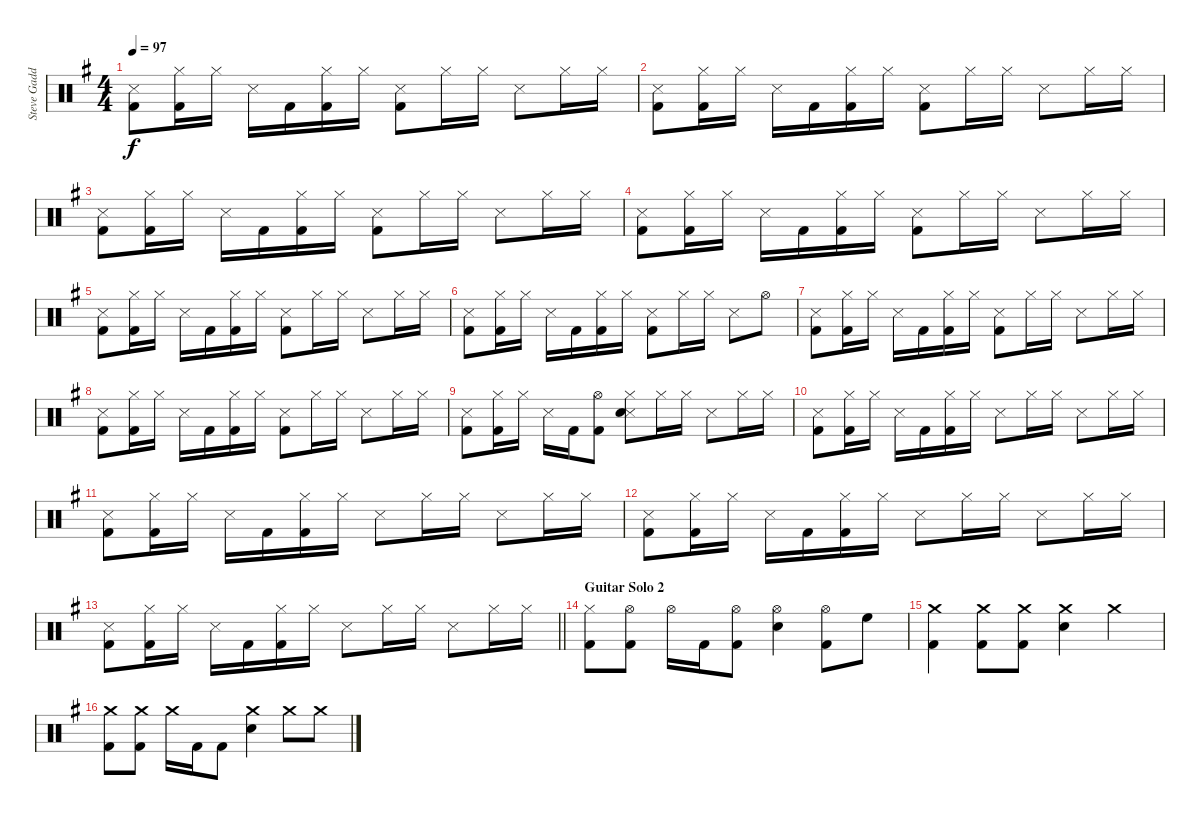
\track ("Steve Gadd" "Steve Gadd") {instrument percussion}
\staff {score}
\articulation defaults
\ts (4 4)
\tempo 97
\clef neutral
\ks g
("Snare (side stick) 3" "Kick (hit) 2").8{dy f} ("Hi-Hat (closed)" "Kick (hit) 2").16 "Hi-Hat (closed)".16 "Snare (side stick) 3".16 "Kick (hit) 2".16 ("Hi-Hat (closed)" "Kick (hit) 2").16 "Hi-Hat (closed)".16 ("Snare (side stick) 3" "Kick (hit) 2").8 "Hi-Hat (closed)".16 "Hi-Hat (closed)".16 "Snare (side stick) 3".8 "Hi-Hat (closed)".16 "Hi-Hat (closed)".16 |
("Snare (side stick) 3" "Kick (hit) 2").8 ("Hi-Hat (closed)" "Kick (hit) 2").16 "Hi-Hat (closed)".16 "Snare (side stick) 3".16 "Kick (hit) 2".16 ("Hi-Hat (closed)" "Kick (hit) 2").16 "Hi-Hat (closed)".16 ("Snare (side stick) 3" "Kick (hit) 2").8 "Hi-Hat (closed)".16 "Hi-Hat (closed)".16 "Snare (side stick) 3".8 "Hi-Hat (closed)".16 "Hi-Hat (closed)".16 |
("Snare (side stick) 3" "Kick (hit) 2").8 ("Hi-Hat (closed)" "Kick (hit) 2").16 "Hi-Hat (closed)".16 "Snare (side stick) 3".16 "Kick (hit) 2".16 ("Hi-Hat (closed)" "Kick (hit) 2").16 "Hi-Hat (closed)".16 ("Snare (side stick) 3" "Kick (hit) 2").8 "Hi-Hat (closed)".16 "Hi-Hat (closed)".16 "Snare (side stick) 3".8 "Hi-Hat (closed)".16 "Hi-Hat (closed)".16 |
("Snare (side stick) 3" "Kick (hit) 2").8 ("Hi-Hat (closed)" "Kick (hit) 2").16 "Hi-Hat (closed)".16 "Snare (side stick) 3".16 "Kick (hit) 2".16 ("Hi-Hat (closed)" "Kick (hit) 2").16 "Hi-Hat (closed)".16 ("Snare (side stick) 3" "Kick (hit) 2").8 "Hi-Hat (closed)".16 "Hi-Hat (closed)".16 "Snare (side stick) 3".8 "Hi-Hat (closed)".16 "Hi-Hat (closed)".16 |
("Snare (side stick) 3" "Kick (hit) 2").8 ("Hi-Hat (closed)" "Kick (hit) 2").16 "Hi-Hat (closed)".16 "Snare (side stick) 3".16 "Kick (hit) 2".16 ("Hi-Hat (closed)" "Kick (hit) 2").16 "Hi-Hat (closed)".16 ("Snare (side stick) 3" "Kick (hit) 2").8 "Hi-Hat (closed)".16 "Hi-Hat (closed)".16 "Snare (side stick) 3".8 "Hi-Hat (closed)".16 "Hi-Hat (closed)".16 |
("Snare (side stick) 3" "Kick (hit) 2").8 ("Hi-Hat (closed)" "Kick (hit) 2").16 "Hi-Hat (closed)".16 "Snare (side stick) 3".16 "Kick (hit) 2".16 ("Hi-Hat (closed)" "Kick (hit) 2").16 "Hi-Hat (closed)".16 ("Snare (side stick) 3" "Kick (hit) 2").8 "Hi-Hat (closed)".16 "Hi-Hat (closed)".16 "Snare (side stick) 3".8 "Hi-Hat (open)".8 |
("Snare (side stick) 3" "Kick (hit) 2").8 ("Hi-Hat (closed)" "Kick (hit) 2").16 "Hi-Hat (closed)".16 "Snare (side stick) 3".16 "Kick (hit) 2".16 ("Hi-Hat (closed)" "Kick (hit) 2").16 "Hi-Hat (closed)".16 ("Snare (side stick) 3" "Kick (hit) 2").8 "Hi-Hat (closed)".16 "Hi-Hat (closed)".16 "Snare (side stick) 3".8 "Hi-Hat (closed)".16 "Hi-Hat (closed)".16 |
("Snare (side stick) 3" "Kick (hit) 2").8 ("Hi-Hat (closed)" "Kick (hit) 2").16 "Hi-Hat (closed)".16 "Snare (side stick) 3".16 "Kick (hit) 2".16 ("Hi-Hat (closed)" "Kick (hit) 2").16 "Hi-Hat (closed)".16 ("Snare (side stick) 3" "Kick (hit) 2").8 "Hi-Hat (closed)".16 "Hi-Hat (closed)".16 "Snare (side stick) 3".8 "Hi-Hat (closed)".16 "Hi-Hat (closed)".16 |
("Snare (side stick) 3" "Kick (hit) 2").8 ("Hi-Hat (closed)" "Kick (hit) 2").16 "Hi-Hat (closed)".16 "Snare (side stick) 3".16 "Kick (hit) 2".16 ("Hi-Hat (open)" "Kick (hit) 2").8 ("Snare (side stick) 3" "Hi-Hat (closed)" "Snare (hit) 2").8 "Hi-Hat (closed)".16 "Hi-Hat (closed)".16 "Snare (side stick) 3".8 "Hi-Hat (closed)".16 "Hi-Hat (closed)".16 |
("Snare (side stick) 3" "Kick (hit) 2").8 ("Hi-Hat (closed)" "Kick (hit) 2").16 "Hi-Hat (closed)".16 "Snare (side stick) 3".16 "Kick (hit) 2".16 ("Hi-Hat (closed)" "Kick (hit) 2").16 "Hi-Hat (closed)".16 "Snare (side stick) 3".8 "Hi-Hat (closed)".16 "Hi-Hat (closed)".16 "Snare (side stick) 3".8 "Hi-Hat (closed)".16 "Hi-Hat (closed)".16 |
("Snare (side stick) 3" "Kick (hit) 2").8 ("Hi-Hat (closed)" "Kick (hit) 2").16 "Hi-Hat (closed)".16 "Snare (side stick) 3".16 "Kick (hit) 2".16 ("Hi-Hat (closed)" "Kick (hit) 2").16 "Hi-Hat (closed)".16 "Snare (side stick) 3".8 "Hi-Hat (closed)".16 "Hi-Hat (closed)".16 "Snare (side stick) 3".8 "Hi-Hat (closed)".16 "Hi-Hat (closed)".16 |
("Snare (side stick) 3" "Kick (hit) 2").8 ("Hi-Hat (closed)" "Kick (hit) 2").16 "Hi-Hat (closed)".16 "Snare (side stick) 3".16 "Kick (hit) 2".16 ("Hi-Hat (closed)" "Kick (hit) 2").16 "Hi-Hat (closed)".16 "Snare (side stick) 3".8 "Hi-Hat (closed)".16 "Hi-Hat (closed)".16 "Snare (side stick) 3".8 "Hi-Hat (closed)".16 "Hi-Hat (closed)".16 |
\barLineRight lightlight
("Snare (side stick) 3" "Kick (hit) 2").8 ("Hi-Hat (closed)" "Kick (hit) 2").16 "Hi-Hat (closed)".16 "Snare (side stick) 3".16 "Kick (hit) 2".16 ("Hi-Hat (closed)" "Kick (hit) 2").16 "Hi-Hat (closed)".16 "Snare (side stick) 3".8 "Hi-Hat (closed)".16 "Hi-Hat (closed)".16 "Snare (side stick) 3".8 "Hi-Hat (closed)".16 "Hi-Hat (closed)".16 |
\section ("" "Guitar Solo 2")
("Hi-Hat (closed)" "Kick (hit) 2").8 ("Hi-Hat (open)" "Kick (hit) 2").8 "Hi-Hat (open)".16 "Kick (hit) 2".16 ("Hi-Hat (open)" "Kick (hit) 2").8 ("Hi-Hat (open)" "Snare (hit) 2").4 ("Hi-Hat (open)" "Kick (hit) 2").8 "High Floor Tom (hit)".8 |
("Crash medium (hit)" "Kick (hit) 2").4 ("Crash medium (hit)" "Kick (hit) 2").8 ("Crash medium (hit)" "Kick (hit) 2").8 ("Crash medium (hit)" "Snare (hit) 2").4 "Crash medium (hit)".4 |
("Crash medium (hit)" "Kick (hit) 2").8 ("Crash medium (hit)" "Kick (hit) 2").8 "Crash medium (hit)".16 "Kick (hit) 2".16 "Kick (hit) 2".8 ("Crash medium (hit)" "Snare (hit) 2").4 "Crash medium (hit)".8 "Crash medium (hit)".8
